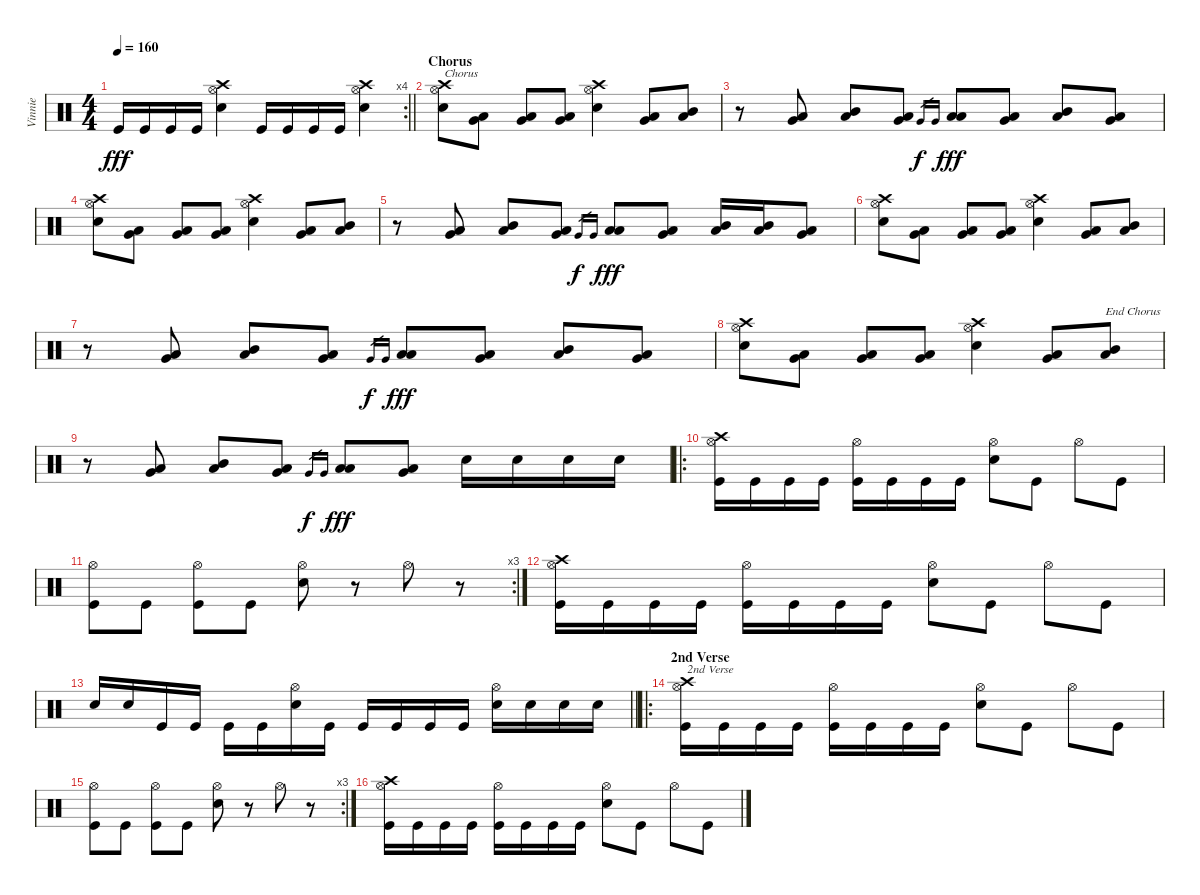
\track ("Vinnie" "Vinnie") {instrument percussion}
\staff {score}
\articulation defaults
\rc 4
\ts (4 4)
\tempo 160
\clef neutral
\barLineRight lightlight
\ks c "Kick (hit)".16{dy fff} "Kick (hit)".16 "Kick (hit)".16 "Kick (hit)".16
("Electric Snare (hit)" "Crash high (hit)" "Hi-Hat (open)").4 "Kick (hit)".16 "Kick (hit)".16 "Kick (hit)".16 "Kick (hit)".16 ("Electric Snare (hit)" "Crash high (hit)" "Hi-Hat (open)").4 |
\section ("" "Chorus")
("Electric Snare (hit)" "Crash high (hit)" "Hi-Hat (open)").8{txt "Chorus"} ("Low Tom (hit)" "Very Low Tom (hit)").8 ("Low Tom (hit)" "Very Low Tom (hit)").8 ("Low Tom (hit)" "Very Low Tom (hit)").8 ("Electric Snare (hit)" "Crash high (hit)" "Hi-Hat (open)").4 ("Low Tom (hit)" "Very Low Tom (hit)").8 ("Mid Tom (hit)" "Low Tom (hit)").8 |
r.8 ("Low Tom (hit)" "Very Low Tom (hit)").8 ("Mid Tom (hit)" "Low Tom (hit)").8 ("Low Tom (hit)" "Very Low Tom (hit)").8 "Very Low Tom (hit)".16{gr dy f} "Very Low Tom (hit)".16{gr} ("Low Tom (hit)" "Low Tom (hit)").8{dy fff} ("Low Tom (hit)" "Very Low Tom (hit)").8 ("Mid Tom (hit)" "Low Tom (hit)").8 ("Low Tom (hit)" "Very Low Tom (hit)").8 |
("Electric Snare (hit)" "Crash high (hit)" "Hi-Hat (open)").8 ("Low Tom (hit)" "Very Low Tom (hit)").8 ("Low Tom (hit)" "Very Low Tom (hit)").8 ("Low Tom (hit)" "Very Low Tom (hit)").8 ("Electric Snare (hit)" "Crash high (hit)" "Hi-Hat (open)").4 ("Low Tom (hit)" "Very Low Tom (hit)").8 ("Mid Tom (hit)" "Low Tom (hit)").8 |
r.8 ("Low Tom (hit)" "Very Low Tom (hit)").8 ("Mid Tom (hit)" "Low Tom (hit)").8 ("Low Tom (hit)" "Very Low Tom (hit)").8 "Very Low Tom (hit)".16{gr dy f} "Very Low Tom (hit)".16{gr} ("Low Tom (hit)" "Low Tom (hit)").8{dy fff} ("Low Tom (hit)" "Very Low Tom (hit)").8 ("Mid Tom (hit)" "Low Tom (hit)").16 ("Mid Tom (hit)" "Low Tom (hit)").16 ("Low Tom (hit)" "Very Low Tom (hit)").8 |
("Electric Snare (hit)" "Crash high (hit)" "Hi-Hat (open)").8 ("Low Tom (hit)" "Very Low Tom (hit)").8 ("Low Tom (hit)" "Very Low Tom (hit)").8 ("Low Tom (hit)" "Very Low Tom (hit)").8 ("Electric Snare (hit)" "Crash high (hit)" "Hi-Hat (open)").4 ("Low Tom (hit)" "Very Low Tom (hit)").8 ("Mid Tom (hit)" "Low Tom (hit)").8 |
r.8 ("Low Tom (hit)" "Very Low Tom (hit)").8 ("Mid Tom (hit)" "Low Tom (hit)").8 ("Low Tom (hit)" "Very Low Tom (hit)").8 "Very Low Tom (hit)".16{gr dy f} "Very Low Tom (hit)".16{gr} ("Low Tom (hit)" "Low Tom (hit)").8{dy fff} ("Low Tom (hit)" "Very Low Tom (hit)").8 ("Mid Tom (hit)" "Low Tom (hit)").8 ("Low Tom (hit)" "Very Low Tom (hit)").8 |
("Electric Snare (hit)" "Crash high (hit)" "Hi-Hat (open)").8 ("Low Tom (hit)" "Very Low Tom (hit)").8 ("Low Tom (hit)" "Very Low Tom (hit)").8 ("Low Tom (hit)" "Very Low Tom (hit)").8 ("Electric Snare (hit)" "Crash high (hit)" "Hi-Hat (open)").4 ("Low Tom (hit)" "Very Low Tom (hit)").8 ("Mid Tom (hit)" "Low Tom (hit)").8{txt "End Chorus"} |
r.8 ("Low Tom (hit)" "Very Low Tom (hit)").8 ("Mid Tom (hit)" "Low Tom (hit)").8 ("Low Tom (hit)" "Very Low Tom (hit)").8 "Very Low Tom (hit)".16{gr dy f} "Very Low Tom (hit)".16{gr} ("Low Tom (hit)" "Low Tom (hit)").8{dy fff} ("Low Tom (hit)" "Very Low Tom (hit)").8 "Electric Snare (hit)".16 "Electric Snare (hit)".16 "Electric Snare (hit)".16 "Electric Snare (hit)".16 |
\ro
("Kick (hit)" "Crash high (hit)" "Hi-Hat (open)").16 "Kick (hit)".16 "Kick (hit)".16 "Kick (hit)".16 ("Kick (hit)" "Hi-Hat (open)").16 "Kick (hit)".16 "Kick (hit)".16 "Kick (hit)".16 ("Electric Snare (hit)" "Hi-Hat (open)").8 "Kick (hit)".8 "Hi-Hat (open)".8 "Kick (hit)".8 |
\rc 3
("Kick (hit)" "Hi-Hat (open)").8 "Kick (hit)".8 ("Kick (hit)" "Hi-Hat (open)").8 "Kick (hit)".8 ("Electric Snare (hit)" "Hi-Hat (open)").8 r.8 "Hi-Hat (open)".8 r.8 |
("Kick (hit)" "Crash high (hit)" "Hi-Hat (open)").16 "Kick (hit)".16 "Kick (hit)".16 "Kick (hit)".16 ("Kick (hit)" "Hi-Hat (open)").16 "Kick (hit)".16 "Kick (hit)".16 "Kick (hit)".16 ("Electric Snare (hit)" "Hi-Hat (open)").8 "Kick (hit)".8 "Hi-Hat (open)".8 "Kick (hit)".8 |
\barLineRight lightlight "Electric Snare (hit)".16 "Electric Snare (hit)".16 "Kick (hit)".16 "Kick (hit)".16 "Kick (hit)".16 "Kick (hit)".16
("Electric Snare (hit)" "Hi-Hat (open)").16 "Kick (hit)".16 "Kick (hit)".16 "Kick (hit)".16 "Kick (hit)".16 "Kick (hit)".16 ("Electric Snare (hit)" "Hi-Hat (open)").16 "Electric Snare (hit)".16 "Electric Snare (hit)".16 "Electric Snare (hit)".16 |
\ro
\section ("" "2nd Verse")
("Kick (hit)" "Crash high (hit)" "Hi-Hat (open)").16{txt "2nd Verse"} "Kick (hit)".16 "Kick (hit)".16 "Kick (hit)".16 ("Kick (hit)" "Hi-Hat (open)").16 "Kick (hit)".16 "Kick (hit)".16 "Kick (hit)".16 ("Electric Snare (hit)" "Hi-Hat (open)").8 "Kick (hit)".8 "Hi-Hat (open)".8 "Kick (hit)".8 |
\rc 3
("Kick (hit)" "Hi-Hat (open)").8 "Kick (hit)".8 ("Kick (hit)" "Hi-Hat (open)").8 "Kick (hit)".8 ("Electric Snare (hit)" "Hi-Hat (open)").8 r.8 "Hi-Hat (open)".8 r.8 |
("Kick (hit)" "Crash high (hit)" "Hi-Hat (open)").16 "Kick (hit)".16 "Kick (hit)".16 "Kick (hit)".16 ("Kick (hit)" "Hi-Hat (open)").16 "Kick (hit)".16 "Kick (hit)".16 "Kick (hit)".16 ("Electric Snare (hit)" "Hi-Hat (open)").8 "Kick (hit)".8 "Hi-Hat (open)".8 "Kick (hit)".8
